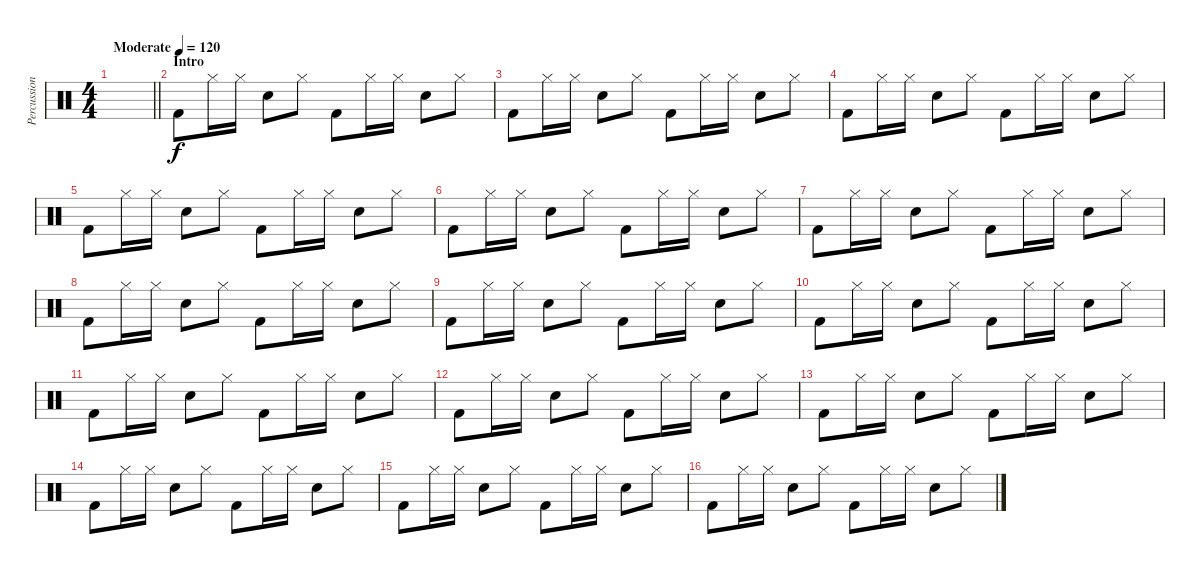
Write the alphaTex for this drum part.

\track ("Percussion" "Percussion") {instrument percussion}
\staff {score}
\articulation defaults
\ts (4 4)
\tempo (120 "Moderate")
\clef neutral
\barLineRight lightlight
\ks c
|
\section ("" "Intro")
"Kick (hit) 2".8 "Hi-Hat (closed)".16 "Hi-Hat (closed)".16 "Snare (hit) 2".8 "Hi-Hat (closed)".8 "Kick (hit) 2".8 "Hi-Hat (closed)".16 "Hi-Hat (closed)".16 "Snare (hit) 2".8 "Hi-Hat (closed)".8 |
"Kick (hit) 2".8 "Hi-Hat (closed)".16 "Hi-Hat (closed)".16 "Snare (hit) 2".8 "Hi-Hat (closed)".8 "Kick (hit) 2".8 "Hi-Hat (closed)".16 "Hi-Hat (closed)".16 "Snare (hit) 2".8 "Hi-Hat (closed)".8 |
"Kick (hit) 2".8 "Hi-Hat (closed)".16 "Hi-Hat (closed)".16 "Snare (hit) 2".8 "Hi-Hat (closed)".8 "Kick (hit) 2".8 "Hi-Hat (closed)".16 "Hi-Hat (closed)".16 "Snare (hit) 2".8 "Hi-Hat (closed)".8 |
"Kick (hit) 2".8 "Hi-Hat (closed)".16 "Hi-Hat (closed)".16 "Snare (hit) 2".8 "Hi-Hat (closed)".8 "Kick (hit) 2".8 "Hi-Hat (closed)".16 "Hi-Hat (closed)".16 "Snare (hit) 2".8 "Hi-Hat (closed)".8 |
"Kick (hit) 2".8 "Hi-Hat (closed)".16 "Hi-Hat (closed)".16 "Snare (hit) 2".8 "Hi-Hat (closed)".8 "Kick (hit) 2".8 "Hi-Hat (closed)".16 "Hi-Hat (closed)".16 "Snare (hit) 2".8 "Hi-Hat (closed)".8 |
"Kick (hit) 2".8 "Hi-Hat (closed)".16 "Hi-Hat (closed)".16 "Snare (hit) 2".8 "Hi-Hat (closed)".8 "Kick (hit) 2".8 "Hi-Hat (closed)".16 "Hi-Hat (closed)".16 "Snare (hit) 2".8 "Hi-Hat (closed)".8 |
"Kick (hit) 2".8 "Hi-Hat (closed)".16 "Hi-Hat (closed)".16 "Snare (hit) 2".8 "Hi-Hat (closed)".8 "Kick (hit) 2".8 "Hi-Hat (closed)".16 "Hi-Hat (closed)".16 "Snare (hit) 2".8 "Hi-Hat (closed)".8 |
"Kick (hit) 2".8 "Hi-Hat (closed)".16 "Hi-Hat (closed)".16 "Snare (hit) 2".8 "Hi-Hat (closed)".8 "Kick (hit) 2".8 "Hi-Hat (closed)".16 "Hi-Hat (closed)".16 "Snare (hit) 2".8 "Hi-Hat (closed)".8 |
"Kick (hit) 2".8 "Hi-Hat (closed)".16 "Hi-Hat (closed)".16 "Snare (hit) 2".8 "Hi-Hat (closed)".8 "Kick (hit) 2".8 "Hi-Hat (closed)".16 "Hi-Hat (closed)".16 "Snare (hit) 2".8 "Hi-Hat (closed)".8 |
"Kick (hit) 2".8 "Hi-Hat (closed)".16 "Hi-Hat (closed)".16 "Snare (hit) 2".8 "Hi-Hat (closed)".8 "Kick (hit) 2".8 "Hi-Hat (closed)".16 "Hi-Hat (closed)".16 "Snare (hit) 2".8 "Hi-Hat (closed)".8 |
"Kick (hit) 2".8 "Hi-Hat (closed)".16 "Hi-Hat (closed)".16 "Snare (hit) 2".8 "Hi-Hat (closed)".8 "Kick (hit) 2".8 "Hi-Hat (closed)".16 "Hi-Hat (closed)".16 "Snare (hit) 2".8 "Hi-Hat (closed)".8 |
"Kick (hit) 2".8 "Hi-Hat (closed)".16 "Hi-Hat (closed)".16 "Snare (hit) 2".8 "Hi-Hat (closed)".8 "Kick (hit) 2".8 "Hi-Hat (closed)".16 "Hi-Hat (closed)".16 "Snare (hit) 2".8 "Hi-Hat (closed)".8 |
"Kick (hit) 2".8 "Hi-Hat (closed)".16 "Hi-Hat (closed)".16 "Snare (hit) 2".8 "Hi-Hat (closed)".8 "Kick (hit) 2".8 "Hi-Hat (closed)".16 "Hi-Hat (closed)".16 "Snare (hit) 2".8 "Hi-Hat (closed)".8 |
"Kick (hit) 2".8 "Hi-Hat (closed)".16 "Hi-Hat (closed)".16 "Snare (hit) 2".8 "Hi-Hat (closed)".8 "Kick (hit) 2".8 "Hi-Hat (closed)".16 "Hi-Hat (closed)".16 "Snare (hit) 2".8 "Hi-Hat (closed)".8 |
"Kick (hit) 2".8 "Hi-Hat (closed)".16 "Hi-Hat (closed)".16 "Snare (hit) 2".8 "Hi-Hat (closed)".8 "Kick (hit) 2".8 "Hi-Hat (closed)".16 "Hi-Hat (closed)".16 "Snare (hit) 2".8 "Hi-Hat (closed)".8
